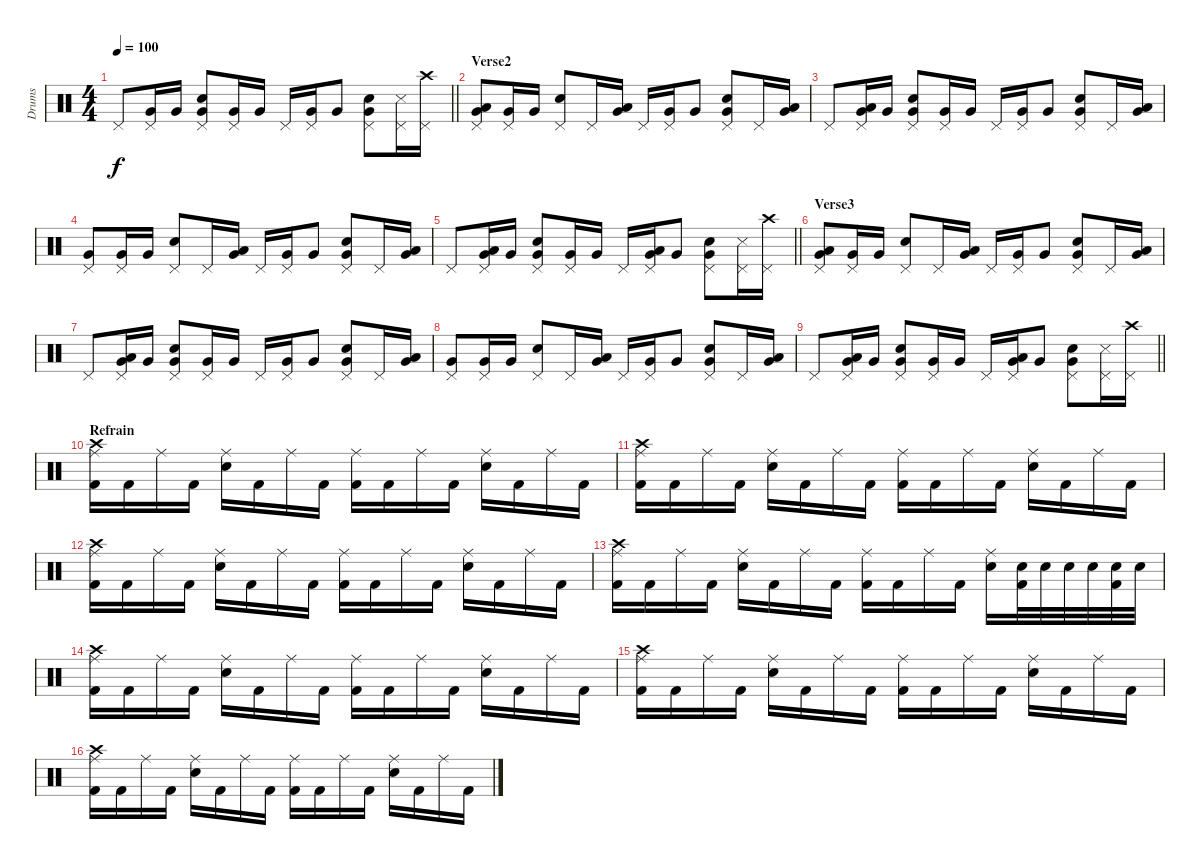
\track ("Drums" "Drums") {instrument percussion}
\staff {score}
\articulation defaults
\ts (4 4)
\tempo 100
\clef neutral
\barLineRight lightlight
\ks c "Pedal Hi-Hat (hit)".8{dy f}
("Very Low Tom (hit)" "Pedal Hi-Hat (hit)").16 "Very Low Tom (hit)".16 ("Snare (hit) 2" "Very Low Tom (hit)" "Pedal Hi-Hat (hit)").8 ("Very Low Tom (hit)" "Pedal Hi-Hat (hit)").16 "Very Low Tom (hit)".16 "Pedal Hi-Hat (hit)".16 ("Very Low Tom (hit)" "Pedal Hi-Hat (hit)").16 "Very Low Tom (hit)".8 ("Snare (hit) 2" "Very Low Tom (hit)" "Pedal Hi-Hat (hit)").8 ("Snare (side stick) 3" "Pedal Hi-Hat (hit)").16 ("Crash high (hit)" "Pedal Hi-Hat (hit)").16 |
\section ("" "Verse2")
("Low Floor Tom (hit)" "Very Low Tom (hit)" "Pedal Hi-Hat (hit)").8 ("Very Low Tom (hit)" "Pedal Hi-Hat (hit)").16 "Very Low Tom (hit)".16 ("Snare (hit) 2" "Pedal Hi-Hat (hit)").8 "Pedal Hi-Hat (hit)".16 ("Low Floor Tom (hit)" "Very Low Tom (hit)").16 "Pedal Hi-Hat (hit)".16 ("Very Low Tom (hit)" "Pedal Hi-Hat (hit)").16 "Very Low Tom (hit)".8 ("Snare (hit) 2" "Very Low Tom (hit)" "Pedal Hi-Hat (hit)").8 "Pedal Hi-Hat (hit)".16 ("Low Floor Tom (hit)" "Very Low Tom (hit)").16 |
"Pedal Hi-Hat (hit)".8 ("Low Floor Tom (hit)" "Very Low Tom (hit)" "Pedal Hi-Hat (hit)").16 "Very Low Tom (hit)".16 ("Snare (hit) 2" "Very Low Tom (hit)" "Pedal Hi-Hat (hit)").8 ("Very Low Tom (hit)" "Pedal Hi-Hat (hit)").16 "Very Low Tom (hit)".16 "Pedal Hi-Hat (hit)".16 ("Very Low Tom (hit)" "Pedal Hi-Hat (hit)").16 "Very Low Tom (hit)".8 ("Snare (hit) 2" "Very Low Tom (hit)" "Pedal Hi-Hat (hit)").8 "Pedal Hi-Hat (hit)".16 ("Low Floor Tom (hit)" "Very Low Tom (hit)").16 |
("Very Low Tom (hit)" "Pedal Hi-Hat (hit)").8 ("Very Low Tom (hit)" "Pedal Hi-Hat (hit)").16 "Very Low Tom (hit)".16 ("Snare (hit) 2" "Pedal Hi-Hat (hit)").8 "Pedal Hi-Hat (hit)".16 ("Low Floor Tom (hit)" "Very Low Tom (hit)").16 "Pedal Hi-Hat (hit)".16 ("Very Low Tom (hit)" "Pedal Hi-Hat (hit)").16 "Very Low Tom (hit)".8 ("Snare (hit) 2" "Very Low Tom (hit)" "Pedal Hi-Hat (hit)").8 "Pedal Hi-Hat (hit)".16 ("Low Floor Tom (hit)" "Very Low Tom (hit)").16 |
\barLineRight lightlight "Pedal Hi-Hat (hit)".8
("Low Floor Tom (hit)" "Very Low Tom (hit)" "Pedal Hi-Hat (hit)").16 "Very Low Tom (hit)".16 ("Snare (hit) 2" "Very Low Tom (hit)" "Pedal Hi-Hat (hit)").8 ("Very Low Tom (hit)" "Pedal Hi-Hat (hit)").16 "Very Low Tom (hit)".16 "Pedal Hi-Hat (hit)".16 ("Low Floor Tom (hit)" "Very Low Tom (hit)" "Pedal Hi-Hat (hit)").16 "Very Low Tom (hit)".8 ("Snare (hit) 2" "Very Low Tom (hit)" "Pedal Hi-Hat (hit)").8 ("Snare (side stick) 3" "Pedal Hi-Hat (hit)").16 ("Crash high (hit)" "Pedal Hi-Hat (hit)").16 |
\section ("" "Verse3")
("Low Floor Tom (hit)" "Very Low Tom (hit)" "Pedal Hi-Hat (hit)").8 ("Very Low Tom (hit)" "Pedal Hi-Hat (hit)").16 "Very Low Tom (hit)".16 ("Snare (hit) 2" "Pedal Hi-Hat (hit)").8 "Pedal Hi-Hat (hit)".16 ("Low Floor Tom (hit)" "Very Low Tom (hit)").16 "Pedal Hi-Hat (hit)".16 ("Very Low Tom (hit)" "Pedal Hi-Hat (hit)").16 "Very Low Tom (hit)".8 ("Snare (hit) 2" "Very Low Tom (hit)" "Pedal Hi-Hat (hit)").8 "Pedal Hi-Hat (hit)".16 ("Low Floor Tom (hit)" "Very Low Tom (hit)").16 |
"Pedal Hi-Hat (hit)".8 ("Low Floor Tom (hit)" "Very Low Tom (hit)" "Pedal Hi-Hat (hit)").16 "Very Low Tom (hit)".16 ("Snare (hit) 2" "Very Low Tom (hit)" "Pedal Hi-Hat (hit)").8 ("Very Low Tom (hit)" "Pedal Hi-Hat (hit)").16 "Very Low Tom (hit)".16 "Pedal Hi-Hat (hit)".16 ("Very Low Tom (hit)" "Pedal Hi-Hat (hit)").16 "Very Low Tom (hit)".8 ("Snare (hit) 2" "Very Low Tom (hit)" "Pedal Hi-Hat (hit)").8 "Pedal Hi-Hat (hit)".16 ("Low Floor Tom (hit)" "Very Low Tom (hit)").16 |
("Very Low Tom (hit)" "Pedal Hi-Hat (hit)").8 ("Very Low Tom (hit)" "Pedal Hi-Hat (hit)").16 "Very Low Tom (hit)".16 ("Snare (hit) 2" "Pedal Hi-Hat (hit)").8 "Pedal Hi-Hat (hit)".16 ("Low Floor Tom (hit)" "Very Low Tom (hit)").16 "Pedal Hi-Hat (hit)".16 ("Very Low Tom (hit)" "Pedal Hi-Hat (hit)").16 "Very Low Tom (hit)".8 ("Snare (hit) 2" "Very Low Tom (hit)" "Pedal Hi-Hat (hit)").8 "Pedal Hi-Hat (hit)".16 ("Low Floor Tom (hit)" "Very Low Tom (hit)").16 |
\barLineRight lightlight "Pedal Hi-Hat (hit)".8
("Low Floor Tom (hit)" "Very Low Tom (hit)" "Pedal Hi-Hat (hit)").16 "Very Low Tom (hit)".16 ("Snare (hit) 2" "Very Low Tom (hit)" "Pedal Hi-Hat (hit)").8 ("Very Low Tom (hit)" "Pedal Hi-Hat (hit)").16 "Very Low Tom (hit)".16 "Pedal Hi-Hat (hit)".16 ("Low Floor Tom (hit)" "Very Low Tom (hit)" "Pedal Hi-Hat (hit)").16 "Very Low Tom (hit)".8 ("Snare (hit) 2" "Very Low Tom (hit)" "Pedal Hi-Hat (hit)").8 ("Snare (side stick) 3" "Pedal Hi-Hat (hit)").16 ("Crash high (hit)" "Pedal Hi-Hat (hit)").16 |
\section ("" "Refrain")
("Crash high (hit)" "Kick (hit) 2" "Ride (middle)").16 "Kick (hit) 2".16 "Ride (middle)".16 "Kick (hit) 2".16 ("Snare (hit) 2" "Ride (middle)").16 "Kick (hit) 2".16 "Ride (middle)".16 "Kick (hit) 2".16 ("Kick (hit) 2" "Ride (middle)").16 "Kick (hit) 2".16 "Ride (middle)".16 "Kick (hit) 2".16 ("Snare (hit) 2" "Ride (middle)").16 "Kick (hit) 2".16 "Ride (middle)".16 "Kick (hit) 2".16 |
("Crash high (hit)" "Kick (hit) 2" "Ride (middle)").16 "Kick (hit) 2".16 "Ride (middle)".16 "Kick (hit) 2".16 ("Snare (hit) 2" "Ride (middle)").16 "Kick (hit) 2".16 "Ride (middle)".16 "Kick (hit) 2".16 ("Kick (hit) 2" "Ride (middle)").16 "Kick (hit) 2".16 "Ride (middle)".16 "Kick (hit) 2".16 ("Snare (hit) 2" "Ride (middle)").16 "Kick (hit) 2".16 "Ride (middle)".16 "Kick (hit) 2".16 |
("Crash high (hit)" "Kick (hit) 2" "Ride (middle)").16 "Kick (hit) 2".16 "Ride (middle)".16 "Kick (hit) 2".16 ("Snare (hit) 2" "Ride (middle)").16 "Kick (hit) 2".16 "Ride (middle)".16 "Kick (hit) 2".16 ("Kick (hit) 2" "Ride (middle)").16 "Kick (hit) 2".16 "Ride (middle)".16 "Kick (hit) 2".16 ("Snare (hit) 2" "Ride (middle)").16 "Kick (hit) 2".16 "Ride (middle)".16 "Kick (hit) 2".16 |
("Crash high (hit)" "Kick (hit) 2" "Ride (middle)").16 "Kick (hit) 2".16 "Ride (middle)".16 "Kick (hit) 2".16 ("Snare (hit) 2" "Ride (middle)").16 "Kick (hit) 2".16 "Ride (middle)".16 "Kick (hit) 2".16 ("Kick (hit) 2" "Ride (middle)").16 "Kick (hit) 2".16 "Ride (middle)".16 "Kick (hit) 2".16 ("Snare (hit) 2" "Ride (middle)").16 ("Snare (hit) 2" "Kick (hit) 2").32 "Snare (hit) 2".32 "Snare (hit) 2".32 "Snare (hit) 2".32 ("Snare (hit) 2" "Kick (hit) 2").32 "Snare (hit) 2".32 |
("Crash high (hit)" "Kick (hit) 2" "Ride (middle)").16 "Kick (hit) 2".16 "Ride (middle)".16 "Kick (hit) 2".16 ("Snare (hit) 2" "Ride (middle)").16 "Kick (hit) 2".16 "Ride (middle)".16 "Kick (hit) 2".16 ("Kick (hit) 2" "Ride (middle)").16 "Kick (hit) 2".16 "Ride (middle)".16 "Kick (hit) 2".16 ("Snare (hit) 2" "Ride (middle)").16 "Kick (hit) 2".16 "Ride (middle)".16 "Kick (hit) 2".16 |
("Crash high (hit)" "Kick (hit) 2" "Ride (middle)").16 "Kick (hit) 2".16 "Ride (middle)".16 "Kick (hit) 2".16 ("Snare (hit) 2" "Ride (middle)").16 "Kick (hit) 2".16 "Ride (middle)".16 "Kick (hit) 2".16 ("Kick (hit) 2" "Ride (middle)").16 "Kick (hit) 2".16 "Ride (middle)".16 "Kick (hit) 2".16 ("Snare (hit) 2" "Ride (middle)").16 "Kick (hit) 2".16 "Ride (middle)".16 "Kick (hit) 2".16 |
("Crash high (hit)" "Kick (hit) 2" "Ride (middle)").16 "Kick (hit) 2".16 "Ride (middle)".16 "Kick (hit) 2".16 ("Snare (hit) 2" "Ride (middle)").16 "Kick (hit) 2".16 "Ride (middle)".16 "Kick (hit) 2".16 ("Kick (hit) 2" "Ride (middle)").16 "Kick (hit) 2".16 "Ride (middle)".16 "Kick (hit) 2".16 ("Snare (hit) 2" "Ride (middle)").16 "Kick (hit) 2".16 "Ride (middle)".16 "Kick (hit) 2".16
